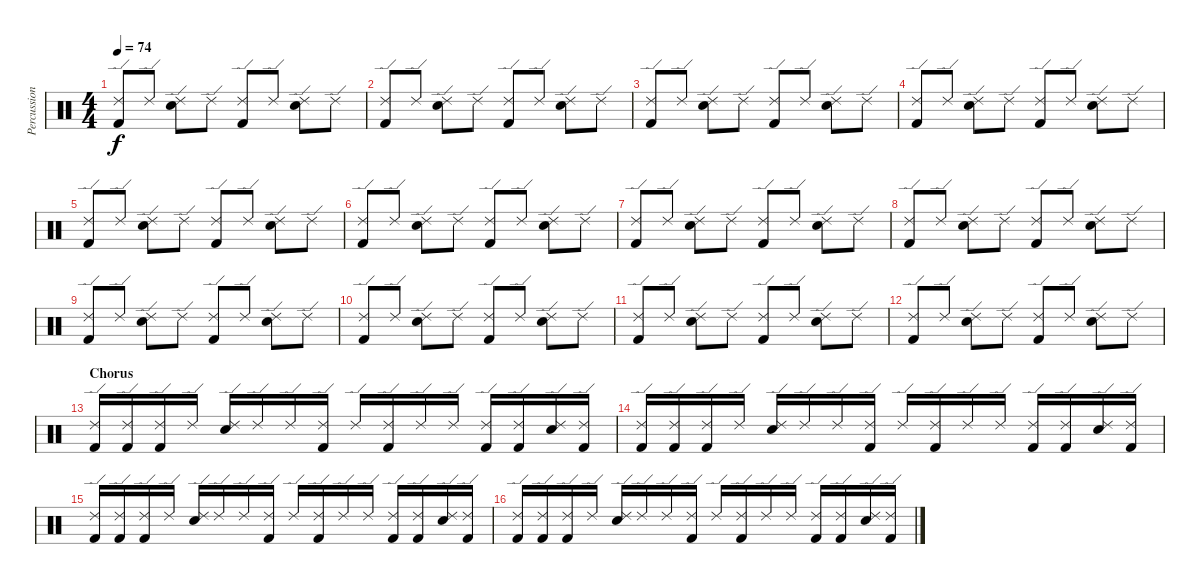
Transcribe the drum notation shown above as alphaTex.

\track ("Percussion" "Percussion") {instrument percussion}
\staff {score}
\articulation defaults
\ts (4 4)
\tempo 74
\clef neutral
\ks c
("Ride (edge) 2" "Kick (hit) 2").8{dy f} "Ride (edge) 2".8 ("Ride (edge) 2" "Electric Snare (hit)").8 "Ride (edge) 2".8 ("Ride (edge) 2" "Kick (hit) 2").8 "Ride (edge) 2".8 ("Ride (edge) 2" "Electric Snare (hit)").8 "Ride (edge) 2".8 |
("Ride (edge) 2" "Kick (hit) 2").8 "Ride (edge) 2".8 ("Ride (edge) 2" "Electric Snare (hit)").8 "Ride (edge) 2".8 ("Ride (edge) 2" "Kick (hit) 2").8 "Ride (edge) 2".8 ("Ride (edge) 2" "Electric Snare (hit)").8 "Ride (edge) 2".8 |
("Ride (edge) 2" "Kick (hit) 2").8 "Ride (edge) 2".8 ("Ride (edge) 2" "Electric Snare (hit)").8 "Ride (edge) 2".8 ("Ride (edge) 2" "Kick (hit) 2").8 "Ride (edge) 2".8 ("Ride (edge) 2" "Electric Snare (hit)").8 "Ride (edge) 2".8 |
("Ride (edge) 2" "Kick (hit) 2").8 "Ride (edge) 2".8 ("Ride (edge) 2" "Electric Snare (hit)").8 "Ride (edge) 2".8 ("Ride (edge) 2" "Kick (hit) 2").8 "Ride (edge) 2".8 ("Ride (edge) 2" "Electric Snare (hit)").8 "Ride (edge) 2".8 |
("Ride (edge) 2" "Kick (hit) 2").8 "Ride (edge) 2".8 ("Ride (edge) 2" "Electric Snare (hit)").8 "Ride (edge) 2".8 ("Ride (edge) 2" "Kick (hit) 2").8 "Ride (edge) 2".8 ("Ride (edge) 2" "Electric Snare (hit)").8 "Ride (edge) 2".8 |
("Ride (edge) 2" "Kick (hit) 2").8 "Ride (edge) 2".8 ("Ride (edge) 2" "Electric Snare (hit)").8 "Ride (edge) 2".8 ("Ride (edge) 2" "Kick (hit) 2").8 "Ride (edge) 2".8 ("Ride (edge) 2" "Electric Snare (hit)").8 "Ride (edge) 2".8 |
("Ride (edge) 2" "Kick (hit) 2").8 "Ride (edge) 2".8 ("Ride (edge) 2" "Electric Snare (hit)").8 "Ride (edge) 2".8 ("Ride (edge) 2" "Kick (hit) 2").8 "Ride (edge) 2".8 ("Ride (edge) 2" "Electric Snare (hit)").8 "Ride (edge) 2".8 |
("Ride (edge) 2" "Kick (hit) 2").8 "Ride (edge) 2".8 ("Ride (edge) 2" "Electric Snare (hit)").8 "Ride (edge) 2".8 ("Ride (edge) 2" "Kick (hit) 2").8 "Ride (edge) 2".8 ("Ride (edge) 2" "Electric Snare (hit)").8 "Ride (edge) 2".8 |
("Ride (edge) 2" "Kick (hit) 2").8 "Ride (edge) 2".8 ("Ride (edge) 2" "Electric Snare (hit)").8 "Ride (edge) 2".8 ("Ride (edge) 2" "Kick (hit) 2").8 "Ride (edge) 2".8 ("Ride (edge) 2" "Electric Snare (hit)").8 "Ride (edge) 2".8 |
("Ride (edge) 2" "Kick (hit) 2").8 "Ride (edge) 2".8 ("Ride (edge) 2" "Electric Snare (hit)").8 "Ride (edge) 2".8 ("Ride (edge) 2" "Kick (hit) 2").8 "Ride (edge) 2".8 ("Ride (edge) 2" "Electric Snare (hit)").8 "Ride (edge) 2".8 |
("Ride (edge) 2" "Kick (hit) 2").8 "Ride (edge) 2".8 ("Ride (edge) 2" "Electric Snare (hit)").8 "Ride (edge) 2".8 ("Ride (edge) 2" "Kick (hit) 2").8 "Ride (edge) 2".8 ("Ride (edge) 2" "Electric Snare (hit)").8 "Ride (edge) 2".8 |
("Ride (edge) 2" "Kick (hit) 2").8 "Ride (edge) 2".8 ("Ride (edge) 2" "Electric Snare (hit)").8 "Ride (edge) 2".8 ("Ride (edge) 2" "Kick (hit) 2").8 "Ride (edge) 2".8 ("Ride (edge) 2" "Electric Snare (hit)").8 "Ride (edge) 2".8 |
\section ("" "Chorus")
("Ride (edge) 2" "Kick (hit) 2").16 ("Ride (edge) 2" "Kick (hit) 2").16 ("Ride (edge) 2" "Kick (hit) 2").16 "Ride (edge) 2".16 ("Ride (edge) 2" "Electric Snare (hit)").16 "Ride (edge) 2".16 "Ride (edge) 2".16 ("Ride (edge) 2" "Kick (hit) 2").16 "Ride (edge) 2".16 ("Ride (edge) 2" "Kick (hit) 2").16 "Ride (edge) 2".16 "Ride (edge) 2".16 ("Ride (edge) 2" "Kick (hit) 2").16 ("Ride (edge) 2" "Kick (hit) 2").16 ("Ride (edge) 2" "Electric Snare (hit)").16 ("Ride (edge) 2" "Kick (hit) 2").16 |
("Ride (edge) 2" "Kick (hit) 2").16 ("Ride (edge) 2" "Kick (hit) 2").16 ("Ride (edge) 2" "Kick (hit) 2").16 "Ride (edge) 2".16 ("Ride (edge) 2" "Electric Snare (hit)").16 "Ride (edge) 2".16 "Ride (edge) 2".16 ("Ride (edge) 2" "Kick (hit) 2").16 "Ride (edge) 2".16 ("Ride (edge) 2" "Kick (hit) 2").16 "Ride (edge) 2".16 "Ride (edge) 2".16 ("Ride (edge) 2" "Kick (hit) 2").16 ("Ride (edge) 2" "Kick (hit) 2").16 ("Ride (edge) 2" "Electric Snare (hit)").16 ("Ride (edge) 2" "Kick (hit) 2").16 |
("Ride (edge) 2" "Kick (hit) 2").16 ("Ride (edge) 2" "Kick (hit) 2").16 ("Ride (edge) 2" "Kick (hit) 2").16 "Ride (edge) 2".16 ("Ride (edge) 2" "Electric Snare (hit)").16 "Ride (edge) 2".16 "Ride (edge) 2".16 ("Ride (edge) 2" "Kick (hit) 2").16 "Ride (edge) 2".16 ("Ride (edge) 2" "Kick (hit) 2").16 "Ride (edge) 2".16 "Ride (edge) 2".16 ("Ride (edge) 2" "Kick (hit) 2").16 ("Ride (edge) 2" "Kick (hit) 2").16 ("Ride (edge) 2" "Electric Snare (hit)").16 ("Ride (edge) 2" "Kick (hit) 2").16 |
("Ride (edge) 2" "Kick (hit) 2").16 ("Ride (edge) 2" "Kick (hit) 2").16 ("Ride (edge) 2" "Kick (hit) 2").16 "Ride (edge) 2".16 ("Ride (edge) 2" "Electric Snare (hit)").16 "Ride (edge) 2".16 "Ride (edge) 2".16 ("Ride (edge) 2" "Kick (hit) 2").16 "Ride (edge) 2".16 ("Ride (edge) 2" "Kick (hit) 2").16 "Ride (edge) 2".16 "Ride (edge) 2".16 ("Ride (edge) 2" "Kick (hit) 2").16 ("Ride (edge) 2" "Kick (hit) 2").16 ("Ride (edge) 2" "Electric Snare (hit)").16 ("Ride (edge) 2" "Kick (hit) 2").16
